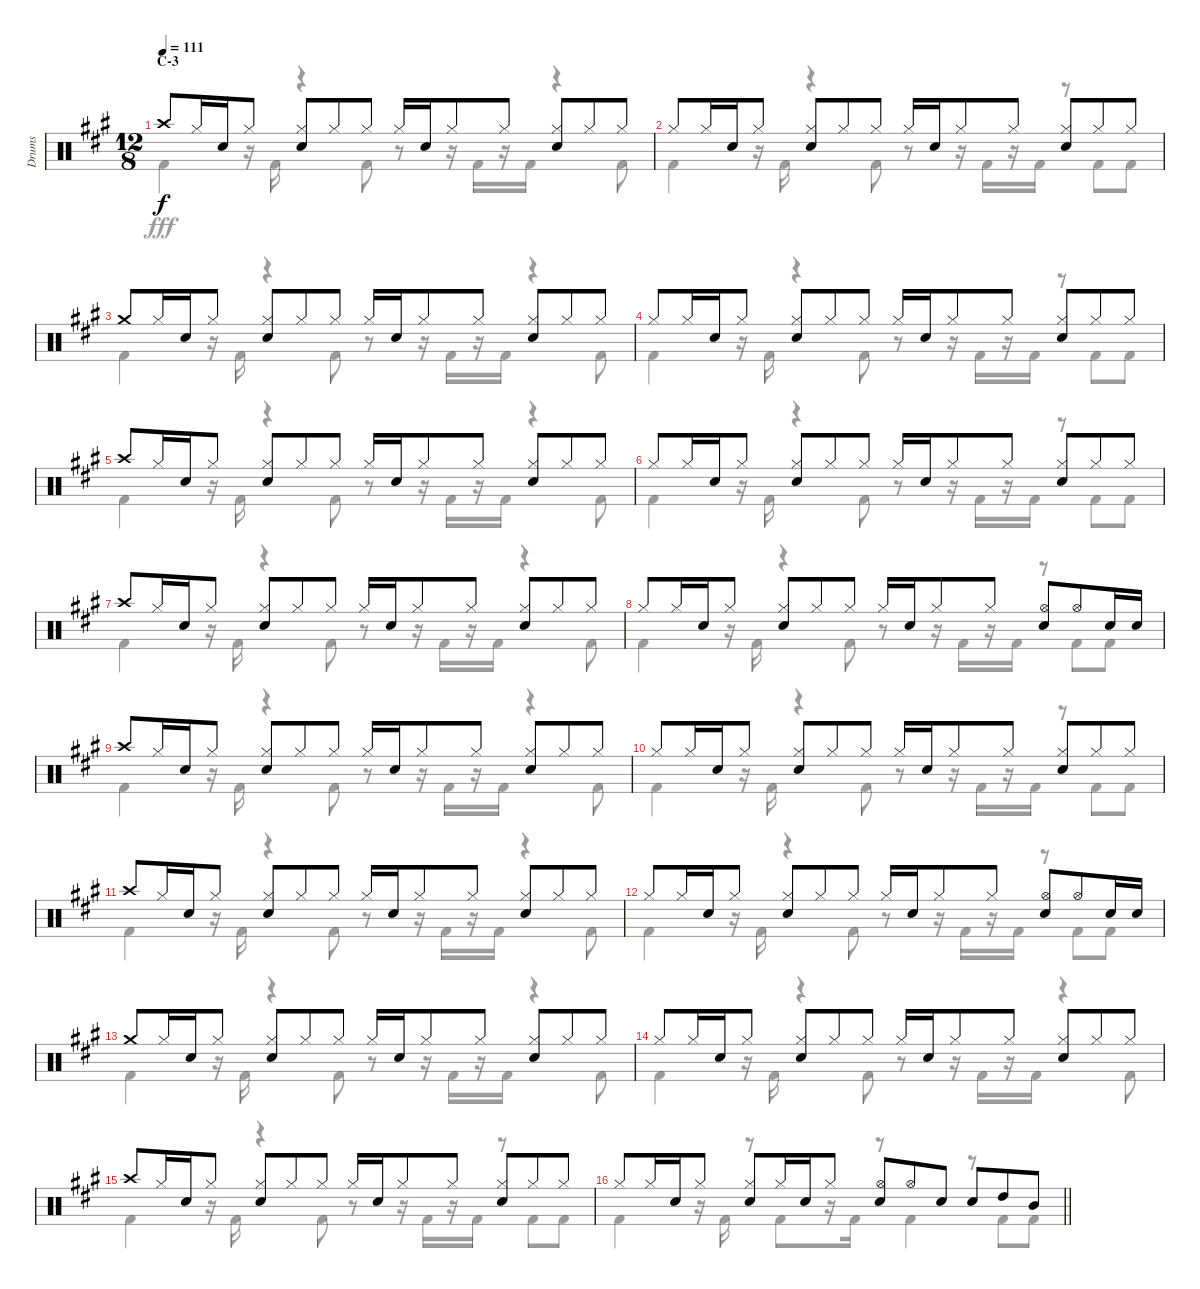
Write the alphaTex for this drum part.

\track ("Drums" "Drums") {instrument percussion}
\staff {score}
\articulation defaults
\voice
\ts (12 8)
\section ("" "C-3")
\tempo 111
\clef neutral
\ks a "Crash high (hit)".8{dy f} "Hi-Hat (closed)".16 "Snare (hit) 2".16 "Hi-Hat (closed)".8
("Hi-Hat (closed)" "Snare (hit) 2").8 "Hi-Hat (closed)".8 "Hi-Hat (closed)".8 "Hi-Hat (closed)".16 "Snare (hit) 2".16 "Hi-Hat (closed)".8 "Hi-Hat (closed)".8 ("Hi-Hat (closed)" "Snare (hit) 2").8 "Hi-Hat (closed)".8 "Hi-Hat (closed)".8 |
"Hi-Hat (closed)".8 "Hi-Hat (closed)".16 "Snare (hit) 2".16 "Hi-Hat (closed)".8 ("Hi-Hat (closed)" "Snare (hit) 2").8 "Hi-Hat (closed)".8 "Hi-Hat (closed)".8 "Hi-Hat (closed)".16 "Snare (hit) 2".16 "Hi-Hat (closed)".8 "Hi-Hat (closed)".8 ("Hi-Hat (closed)" "Snare (hit) 2").8 "Hi-Hat (closed)".8 "Hi-Hat (closed)".8 |
"Crash medium (hit)".8 "Hi-Hat (closed)".16 "Snare (hit) 2".16 "Hi-Hat (closed)".8 ("Hi-Hat (closed)" "Snare (hit) 2").8 "Hi-Hat (closed)".8 "Hi-Hat (closed)".8 "Hi-Hat (closed)".16 "Snare (hit) 2".16 "Hi-Hat (closed)".8 "Hi-Hat (closed)".8 ("Hi-Hat (closed)" "Snare (hit) 2").8 "Hi-Hat (closed)".8 "Hi-Hat (closed)".8 |
"Hi-Hat (closed)".8 "Hi-Hat (closed)".16 "Snare (hit) 2".16 "Hi-Hat (closed)".8 ("Hi-Hat (closed)" "Snare (hit) 2").8 "Hi-Hat (closed)".8 "Hi-Hat (closed)".8 "Hi-Hat (closed)".16 "Snare (hit) 2".16 "Hi-Hat (closed)".8 "Hi-Hat (closed)".8 ("Hi-Hat (closed)" "Snare (hit) 2").8 "Hi-Hat (closed)".8 "Hi-Hat (closed)".8 |
"Crash high (hit)".8 "Hi-Hat (closed)".16 "Snare (hit) 2".16 "Hi-Hat (closed)".8 ("Hi-Hat (closed)" "Snare (hit) 2").8 "Hi-Hat (closed)".8 "Hi-Hat (closed)".8 "Hi-Hat (closed)".16 "Snare (hit) 2".16 "Hi-Hat (closed)".8 "Hi-Hat (closed)".8 ("Hi-Hat (closed)" "Snare (hit) 2").8 "Hi-Hat (closed)".8 "Hi-Hat (closed)".8 |
"Hi-Hat (closed)".8 "Hi-Hat (closed)".16 "Snare (hit) 2".16 "Hi-Hat (closed)".8 ("Hi-Hat (closed)" "Snare (hit) 2").8 "Hi-Hat (closed)".8 "Hi-Hat (closed)".8 "Hi-Hat (closed)".16 "Snare (hit) 2".16 "Hi-Hat (closed)".8 "Hi-Hat (closed)".8 ("Hi-Hat (closed)" "Snare (hit) 2").8 "Hi-Hat (closed)".8 "Hi-Hat (closed)".8 |
"Crash high (hit)".8 "Hi-Hat (closed)".16 "Snare (hit) 2".16 "Hi-Hat (closed)".8 ("Hi-Hat (closed)" "Snare (hit) 2").8 "Hi-Hat (closed)".8 "Hi-Hat (closed)".8 "Hi-Hat (closed)".16 "Snare (hit) 2".16 "Hi-Hat (closed)".8 "Hi-Hat (closed)".8 ("Hi-Hat (closed)" "Snare (hit) 2").8 "Hi-Hat (closed)".8 "Hi-Hat (closed)".8 |
"Hi-Hat (closed)".8 "Hi-Hat (closed)".16 "Snare (hit) 2".16 "Hi-Hat (closed)".8 ("Hi-Hat (closed)" "Snare (hit) 2").8 "Hi-Hat (closed)".8 "Hi-Hat (closed)".8 "Hi-Hat (closed)".16 "Snare (hit) 2".16 "Hi-Hat (closed)".8 "Hi-Hat (closed)".8 ("Hi-Hat (open)" "Snare (hit) 2").8 "Hi-Hat (open)".8 "Snare (hit) 2".16 "Snare (hit) 2".16 |
"Crash high (hit)".8 "Hi-Hat (closed)".16 "Snare (hit) 2".16 "Hi-Hat (closed)".8 ("Hi-Hat (closed)" "Snare (hit) 2").8 "Hi-Hat (closed)".8 "Hi-Hat (closed)".8 "Hi-Hat (closed)".16 "Snare (hit) 2".16 "Hi-Hat (closed)".8 "Hi-Hat (closed)".8 ("Hi-Hat (closed)" "Snare (hit) 2").8 "Hi-Hat (closed)".8 "Hi-Hat (closed)".8 |
"Hi-Hat (closed)".8 "Hi-Hat (closed)".16 "Snare (hit) 2".16 "Hi-Hat (closed)".8 ("Hi-Hat (closed)" "Snare (hit) 2").8 "Hi-Hat (closed)".8 "Hi-Hat (closed)".8 "Hi-Hat (closed)".16 "Snare (hit) 2".16 "Hi-Hat (closed)".8 "Hi-Hat (closed)".8 ("Hi-Hat (closed)" "Snare (hit) 2").8 "Hi-Hat (closed)".8 "Hi-Hat (closed)".8 |
"Crash high (hit)".8 "Hi-Hat (closed)".16 "Snare (hit) 2".16 "Hi-Hat (closed)".8 ("Hi-Hat (closed)" "Snare (hit) 2").8 "Hi-Hat (closed)".8 "Hi-Hat (closed)".8 "Hi-Hat (closed)".16 "Snare (hit) 2".16 "Hi-Hat (closed)".8 "Hi-Hat (closed)".8 ("Hi-Hat (closed)" "Snare (hit) 2").8 "Hi-Hat (closed)".8 "Hi-Hat (closed)".8 |
"Hi-Hat (closed)".8 "Hi-Hat (closed)".16 "Snare (hit) 2".16 "Hi-Hat (closed)".8 ("Hi-Hat (closed)" "Snare (hit) 2").8 "Hi-Hat (closed)".8 "Hi-Hat (closed)".8 "Hi-Hat (closed)".16 "Snare (hit) 2".16 "Hi-Hat (closed)".8 "Hi-Hat (closed)".8 ("Hi-Hat (open)" "Snare (hit) 2").8 "Hi-Hat (open)".8 "Snare (hit) 2".16 "Snare (hit) 2".16 |
"Crash medium (hit)".8 "Hi-Hat (closed)".16 "Snare (hit) 2".16 "Hi-Hat (closed)".8 ("Hi-Hat (closed)" "Snare (hit) 2").8 "Hi-Hat (closed)".8 "Hi-Hat (closed)".8 "Hi-Hat (closed)".16 "Snare (hit) 2".16 "Hi-Hat (closed)".8 "Hi-Hat (closed)".8 ("Hi-Hat (closed)" "Snare (hit) 2").8 "Hi-Hat (closed)".8 "Hi-Hat (closed)".8 |
"Hi-Hat (closed)".8 "Hi-Hat (closed)".16 "Snare (hit) 2".16 "Hi-Hat (closed)".8 ("Hi-Hat (closed)" "Snare (hit) 2").8 "Hi-Hat (closed)".8 "Hi-Hat (closed)".8 "Hi-Hat (closed)".16 "Snare (hit) 2".16 "Hi-Hat (closed)".8 "Hi-Hat (closed)".8 ("Hi-Hat (closed)" "Snare (hit) 2").8 "Hi-Hat (closed)".8 "Hi-Hat (closed)".8 |
"Crash high (hit)".8 "Hi-Hat (closed)".16 "Snare (hit) 2".16 "Hi-Hat (closed)".8 ("Hi-Hat (closed)" "Snare (hit) 2").8 "Hi-Hat (closed)".8 "Hi-Hat (closed)".8 "Hi-Hat (closed)".16 "Snare (hit) 2".16 "Hi-Hat (closed)".8 "Hi-Hat (closed)".8 ("Hi-Hat (closed)" "Snare (hit) 2").8 "Hi-Hat (closed)".8 "Hi-Hat (closed)".8 |
\barLineRight lightlight "Hi-Hat (closed)".8 "Hi-Hat (closed)".16 "Snare (hit) 2".16 "Hi-Hat (closed)".8
("Hi-Hat (closed)" "Snare (hit) 2").8 "Hi-Hat (closed)".16 "Snare (hit) 2".16 "Hi-Hat (closed)".8 ("Hi-Hat (open)" "Snare (hit) 2").8 "Hi-Hat (open)".8 "Snare (hit) 2".8 "Snare (hit) 2".8 "High Tom (hit)".8 "Mid Tom (hit)".8
\voice
\clef neutral
\ottava regular
\simile none
\ks a "Kick (hit) 2".4{dy fff}
r.16 "Kick (hit) 2".16 r.4 "Kick (hit) 2".8 r.8 r.16 "Kick (hit) 2".16 r.16 "Kick (hit) 2".16 r.4 "Kick (hit) 2".8 |
"Kick (hit) 2".4 r.16 "Kick (hit) 2".16 r.4 "Kick (hit) 2".8 r.8 r.16 "Kick (hit) 2".16 r.16 "Kick (hit) 2".16 r.8 "Kick (hit) 2".8 "Kick (hit) 2".8 |
"Kick (hit) 2".4 r.16 "Kick (hit) 2".16 r.4 "Kick (hit) 2".8 r.8 r.16 "Kick (hit) 2".16 r.16 "Kick (hit) 2".16 r.4 "Kick (hit) 2".8 |
"Kick (hit) 2".4 r.16 "Kick (hit) 2".16 r.4 "Kick (hit) 2".8 r.8 r.16 "Kick (hit) 2".16 r.16 "Kick (hit) 2".16 r.8 "Kick (hit) 2".8 "Kick (hit) 2".8 |
"Kick (hit) 2".4 r.16 "Kick (hit) 2".16 r.4 "Kick (hit) 2".8 r.8 r.16 "Kick (hit) 2".16 r.16 "Kick (hit) 2".16 r.4 "Kick (hit) 2".8 |
"Kick (hit) 2".4 r.16 "Kick (hit) 2".16 r.4 "Kick (hit) 2".8 r.8 r.16 "Kick (hit) 2".16 r.16 "Kick (hit) 2".16 r.8 "Kick (hit) 2".8 "Kick (hit) 2".8 |
"Kick (hit) 2".4 r.16 "Kick (hit) 2".16 r.4 "Kick (hit) 2".8 r.8 r.16 "Kick (hit) 2".16 r.16 "Kick (hit) 2".16 r.4 "Kick (hit) 2".8 |
"Kick (hit) 2".4 r.16 "Kick (hit) 2".16 r.4 "Kick (hit) 2".8 r.8 r.16 "Kick (hit) 2".16 r.16 "Kick (hit) 2".16 r.8 "Kick (hit) 2".8 "Kick (hit) 2".8 |
"Kick (hit) 2".4 r.16 "Kick (hit) 2".16 r.4 "Kick (hit) 2".8 r.8 r.16 "Kick (hit) 2".16 r.16 "Kick (hit) 2".16 r.4 "Kick (hit) 2".8 |
"Kick (hit) 2".4 r.16 "Kick (hit) 2".16 r.4 "Kick (hit) 2".8 r.8 r.16 "Kick (hit) 2".16 r.16 "Kick (hit) 2".16 r.8 "Kick (hit) 2".8 "Kick (hit) 2".8 |
"Kick (hit) 2".4 r.16 "Kick (hit) 2".16 r.4 "Kick (hit) 2".8 r.8 r.16 "Kick (hit) 2".16 r.16 "Kick (hit) 2".16 r.4 "Kick (hit) 2".8 |
"Kick (hit) 2".4 r.16 "Kick (hit) 2".16 r.4 "Kick (hit) 2".8 r.8 r.16 "Kick (hit) 2".16 r.16 "Kick (hit) 2".16 r.8 "Kick (hit) 2".8 "Kick (hit) 2".8 |
"Kick (hit) 2".4 r.16 "Kick (hit) 2".16 r.4 "Kick (hit) 2".8 r.8 r.16 "Kick (hit) 2".16 r.16 "Kick (hit) 2".16 r.4 "Kick (hit) 2".8 |
"Kick (hit) 2".4 r.16 "Kick (hit) 2".16 r.4 "Kick (hit) 2".8 r.8 r.16 "Kick (hit) 2".16 r.16 "Kick (hit) 2".16 r.4 "Kick (hit) 2".8 |
"Kick (hit) 2".4 r.16 "Kick (hit) 2".16 r.4 "Kick (hit) 2".8 r.8 r.16 "Kick (hit) 2".16 r.16 "Kick (hit) 2".16 r.8 "Kick (hit) 2".8 "Kick (hit) 2".8 |
\barLineRight lightlight "Kick (hit) 2".4
r.16 "Kick (hit) 2".16 r.8 "Kick (hit) 2".8 r.16 "Kick (hit) 2".16 r.8 "Kick (hit) 2".4 r.8 "Kick (hit) 2".8 "Kick (hit) 2".8
